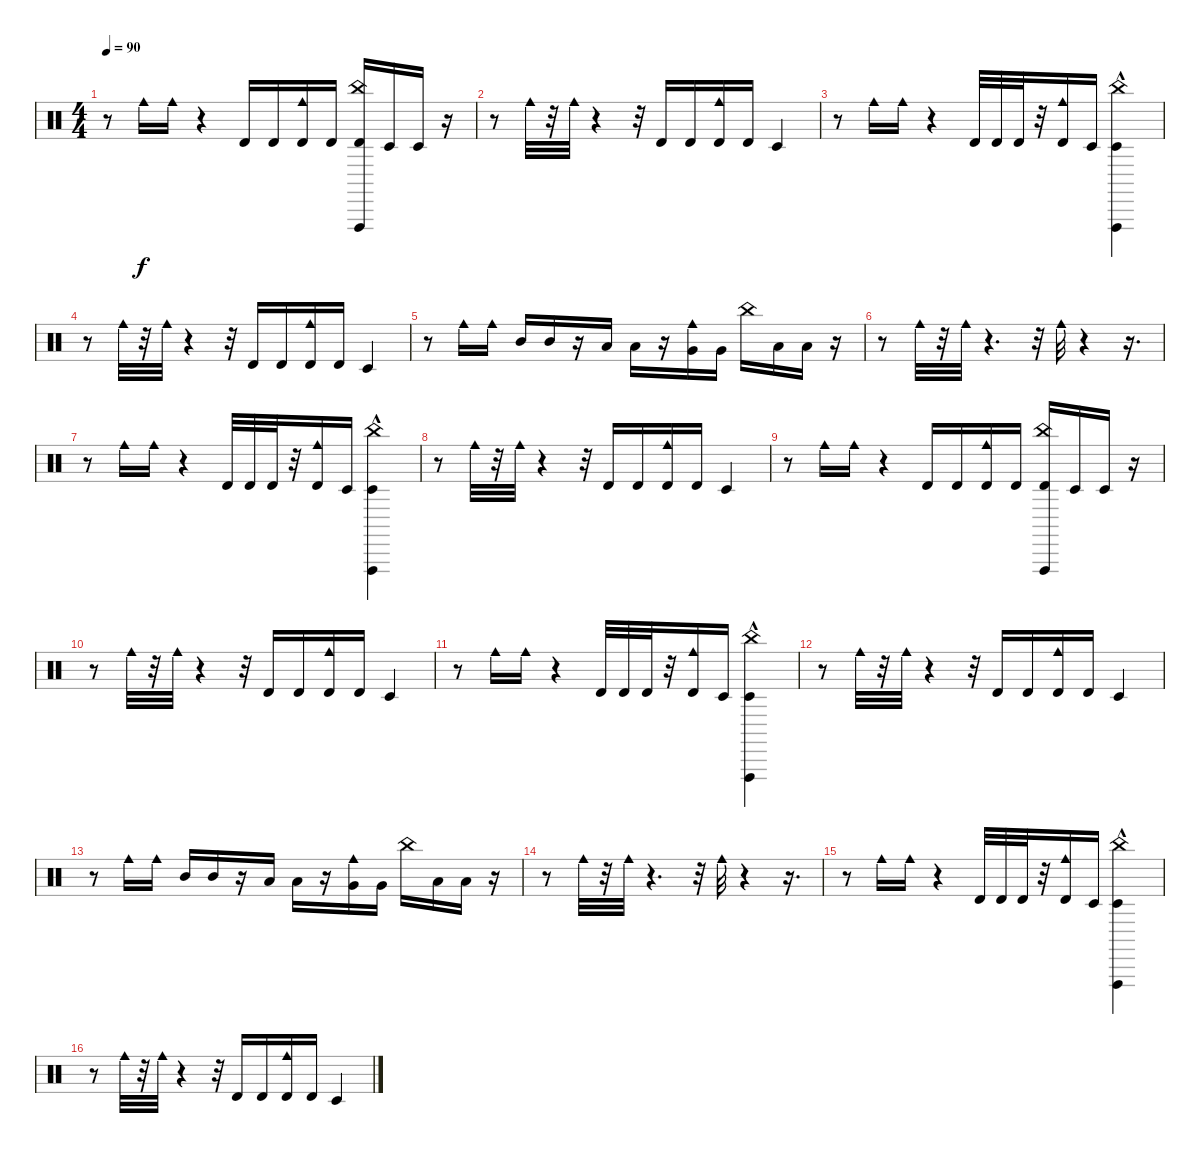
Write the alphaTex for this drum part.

\track "" {instrument percussion}
\staff {score}
\articulation defaults
\ts (4 4)
\tempo 90
\clef neutral
\ks c
r.8{dy f} "Cowbell medium (hit)".16 "Cowbell medium (hit)".16 r.4 "Timbale high (hit)".16 "Timbale high (hit)".16 ("Timbale high (hit)" "Cowbell medium (hit)").16 "Timbale high (hit)".16 ("China (hit)" "Vibraslap (hit)" "Timbale high (hit)").16 "Timbale low (hit)".16 "Timbale low (hit)".16 r.16 |
r.8 "Cowbell medium (hit)".32 r.32 "Cowbell medium (hit)".32 r.4 r.32 "Timbale high (hit)".16 "Timbale high (hit)".16 ("Cowbell medium (hit)" "Timbale high (hit)").16 "Timbale high (hit)".16 "Timbale low (hit)".4 |
r.8 "Cowbell medium (hit)".16 "Cowbell medium (hit)".16 r.4 "Timbale high (hit)".32 "Timbale high (hit)".32 "Timbale high (hit)".32 r.32 ("Timbale high (hit)" "Cowbell medium (hit)").16 "Timbale low (hit)".16 ("Timbale low (hit)" "Vibraslap (hit)"{hac} "China (hit)").4 |
r.8 "Cowbell medium (hit)".32 r.32 "Cowbell medium (hit)".32 r.4 r.32 "Timbale high (hit)".16 "Timbale high (hit)".16 ("Timbale high (hit)" "Cowbell medium (hit)").16 "Timbale high (hit)".16 "Timbale low (hit)".4 |
r.8 "Cowbell medium (hit)".16 "Cowbell medium (hit)".16 "Mid Tom (hit)".16 "Mid Tom (hit)".16 r.16 "Low Tom (hit)".16 "Low Tom (hit)".16 r.16 ("Very Low Tom (hit)" "Cowbell medium (hit)").16 "Very Low Tom (hit)".16 "China (hit)".16 "Low Floor Tom (hit)".16 "Low Floor Tom (hit)".16 r.16 |
r.8 "Cowbell medium (hit)".32 r.32 "Cowbell medium (hit)".32 r.4{d} r.32 "Cowbell medium (hit)".32 r.4 r.16{d} |
r.8 "Cowbell medium (hit)".16 "Cowbell medium (hit)".16 r.4 "Timbale high (hit)".32 "Timbale high (hit)".32 "Timbale high (hit)".32 r.32 ("Timbale high (hit)" "Cowbell medium (hit)").16 "Timbale low (hit)".16 ("Timbale low (hit)" "Vibraslap (hit)"{hac} "China (hit)").4 |
r.8 "Cowbell medium (hit)".32 r.32 "Cowbell medium (hit)".32 r.4 r.32 "Timbale high (hit)".16 "Timbale high (hit)".16 ("Cowbell medium (hit)" "Timbale high (hit)").16 "Timbale high (hit)".16 "Timbale low (hit)".4 |
r.8 "Cowbell medium (hit)".16 "Cowbell medium (hit)".16 r.4 "Timbale high (hit)".16 "Timbale high (hit)".16 ("Timbale high (hit)" "Cowbell medium (hit)").16 "Timbale high (hit)".16 ("Vibraslap (hit)" "Timbale high (hit)" "China (hit)").16 "Timbale low (hit)".16 "Timbale low (hit)".16 r.16 |
r.8 "Cowbell medium (hit)".32 r.32 "Cowbell medium (hit)".32 r.4 r.32 "Timbale high (hit)".16 "Timbale high (hit)".16 ("Cowbell medium (hit)" "Timbale high (hit)").16 "Timbale high (hit)".16 "Timbale low (hit)".4 |
r.8 "Cowbell medium (hit)".16 "Cowbell medium (hit)".16 r.4 "Timbale high (hit)".32 "Timbale high (hit)".32 "Timbale high (hit)".32 r.32 ("Timbale high (hit)" "Cowbell medium (hit)").16 "Timbale low (hit)".16 ("Timbale low (hit)" "Vibraslap (hit)"{hac} "China (hit)").4 |
r.8 "Cowbell medium (hit)".32 r.32 "Cowbell medium (hit)".32 r.4 r.32 "Timbale high (hit)".16 "Timbale high (hit)".16 ("Cowbell medium (hit)" "Timbale high (hit)").16 "Timbale high (hit)".16 "Timbale low (hit)".4 |
r.8 "Cowbell medium (hit)".16 "Cowbell medium (hit)".16 "Mid Tom (hit)".16 "Mid Tom (hit)".16 r.16 "Low Tom (hit)".16 "Low Tom (hit)".16 r.16 ("Very Low Tom (hit)" "Cowbell medium (hit)").16 "Very Low Tom (hit)".16 "China (hit)".16 "Low Floor Tom (hit)".16 "Low Floor Tom (hit)".16 r.16 |
r.8 "Cowbell medium (hit)".32 r.32 "Cowbell medium (hit)".32 r.4{d} r.32 "Cowbell medium (hit)".32 r.4 r.16{d} |
r.8 "Cowbell medium (hit)".16 "Cowbell medium (hit)".16 r.4 "Timbale high (hit)".32 "Timbale high (hit)".32 "Timbale high (hit)".32 r.32 ("Timbale high (hit)" "Cowbell medium (hit)").16 "Timbale low (hit)".16 ("Vibraslap (hit)"{hac} "China (hit)" "Timbale low (hit)").4 |
r.8 "Cowbell medium (hit)".32 r.32 "Cowbell medium (hit)".32 r.4 r.32 "Timbale high (hit)".16 "Timbale high (hit)".16 ("Timbale high (hit)" "Cowbell medium (hit)").16 "Timbale high (hit)".16 "Timbale low (hit)".4
